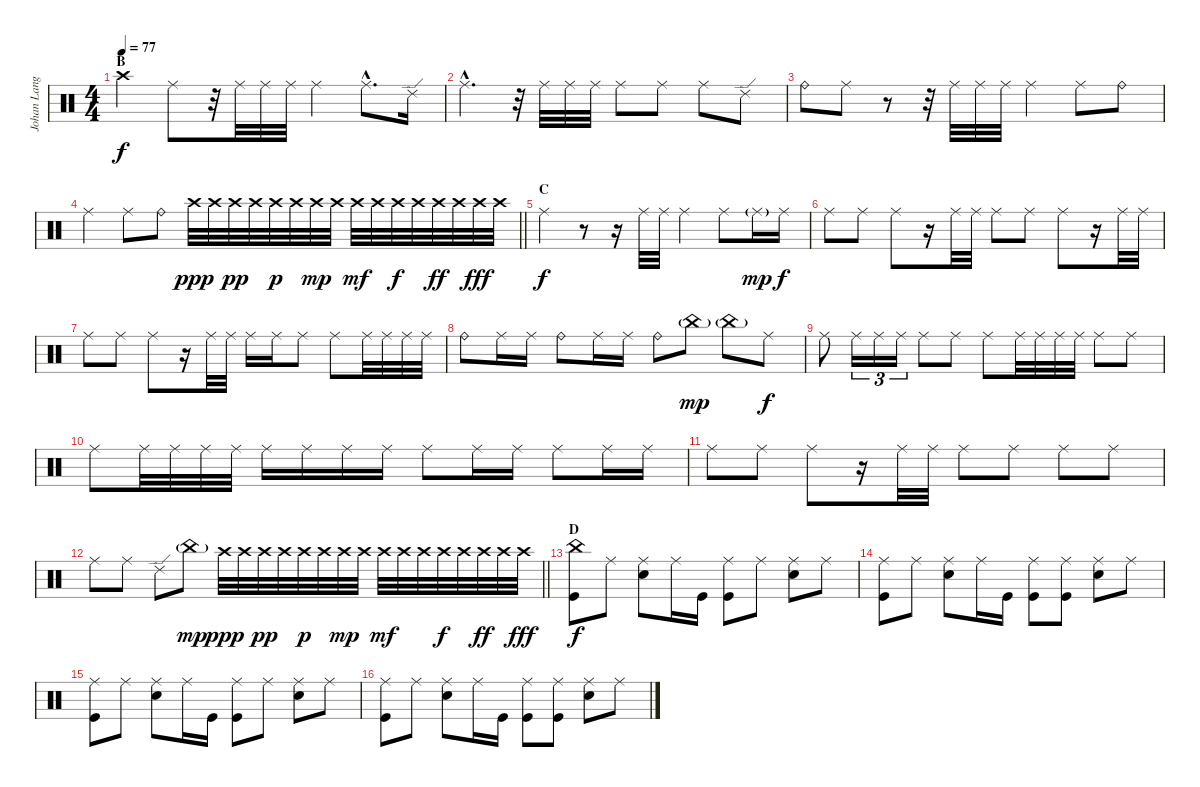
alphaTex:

\track ("Johan Langell - drums" "Johan Lang") {instrument percussion}
\staff {score}
\articulation defaults
\ts (4 4)
\section ("" "B")
\tempo 77
\clef neutral
\ks c "Crash high (hit)".4{dy f} "Ride (middle)".8
r.32 "Ride (middle)".32 "Ride (middle)".32 "Ride (middle)".32 "Ride (middle)".4 "Ride (middle)"{hac}.8{d} "Ride (edge) 2".16 |
"Ride (middle)"{hac}.4{d} r.32 "Ride (middle)".32 "Ride (middle)".32 "Ride (middle)".32 "Ride (middle)".8 "Ride (middle)".8 "Ride (middle)".8 "Ride (edge) 2".8 |
"Ride (bell)".8 "Ride (middle)".8 r.8 r.32 "Ride (middle)".32 "Ride (middle)".32 "Ride (middle)".32 "Ride (middle)".4 "Ride (middle)".8 "Ride (bell)".8 |
\barLineRight lightlight "Ride (middle)".4 "Ride (middle)".8 "Ride (bell)".8 "Crash high (hit)".32{dy ppp} "Crash high (hit)".32 "Crash high (hit)".32{dy pp} "Crash high (hit)".32 "Crash high (hit)".32{dy p} "Crash high (hit)".32 "Crash high (hit)".32{dy mp} "Crash high (hit)".32 "Crash high (hit)".32{dy mf} "Crash high (hit)".32 "Crash high (hit)".32{dy f} "Crash high (hit)".32 "Crash high (hit)".32{dy ff} "Crash high (hit)".32 "Crash high (hit)".32{dy fff} "Crash high (hit)".32
|
\section ("" "C")
"Ride (middle)".4{dy f} r.8 r.16 "Ride (middle)".32 "Ride (middle)".32 "Ride (middle)".4 "Ride (middle)".8 "Ride (middle)"{g}.16{dy mp} "Ride (middle)".16{dy f} |
"Ride (middle)".8 "Ride (middle)".8 "Ride (middle)".8 r.16 "Ride (middle)".32 "Ride (middle)".32 "Ride (middle)".8 "Ride (middle)".8 "Ride (middle)".8 r.16 "Ride (middle)".32 "Ride (middle)".32 |
"Ride (middle)".8 "Ride (middle)".8 "Ride (middle)".8 r.16 "Ride (middle)".32 "Ride (middle)".32 "Ride (middle)".16 "Ride (middle)".16 "Ride (middle)".8 "Ride (middle)".8 "Ride (middle)".32 "Ride (middle)".32 "Ride (middle)".32 "Ride (middle)".32 |
"Ride (bell)".8 "Ride (middle)".16 "Ride (middle)".16 "Ride (bell)".8 "Ride (middle)".16 "Ride (middle)".16 "Ride (bell)".8 "China (hit)"{g}.8{dy mp} "China (hit)"{g}.8 "Ride (middle)".8{dy f} |
"Ride (middle)".8 "Ride (middle)".16{tu (3 2)} "Ride (middle)".16{tu (3 2)} "Ride (middle)".16{tu (3 2)} "Ride (middle)".8 "Ride (middle)".8 "Ride (middle)".8 "Ride (middle)".32 "Ride (middle)".32 "Ride (middle)".32 "Ride (middle)".32 "Ride (middle)".8 "Ride (middle)".8 |
"Ride (middle)".8 "Ride (middle)".32 "Ride (middle)".32 "Ride (middle)".32 "Ride (middle)".32 "Ride (middle)".16 "Ride (middle)".16 "Ride (middle)".16 "Ride (middle)".16 "Ride (middle)".8 "Ride (middle)".16 "Ride (middle)".16 "Ride (middle)".8 "Ride (middle)".16 "Ride (middle)".16 |
"Ride (middle)".8 "Ride (middle)".8 "Ride (middle)".8 r.16 "Ride (middle)".32 "Ride (middle)".32 "Ride (middle)".8 "Ride (middle)".8 "Ride (middle)".8 "Ride (middle)".8 |
\barLineRight lightlight "Ride (middle)".8 "Ride (middle)".8 "Ride (edge) 2".8 "China (hit)"{g}.8{dy mp} "Crash high (hit)".32{dy ppp} "Crash high (hit)".32 "Crash high (hit)".32{dy pp} "Crash high (hit)".32 "Crash high (hit)".32{dy p} "Crash high (hit)".32 "Crash high (hit)".32{dy mp} "Crash high (hit)".32 "Crash high (hit)".32{dy mf} "Crash high (hit)".32 "Crash high (hit)".32 "Crash high (hit)".32{dy f} "Crash high (hit)".32 "Crash high (hit)".32{dy ff} "Crash high (hit)".32 "Crash high (hit)".32{dy fff}
|
\section ("" "D")
("China (hit)" "Kick (hit)").8{dy f} "Ride (middle)".8 ("Ride (middle)" "Electric Snare (hit)").8 "Ride (middle)".16 "Kick (hit)".16 ("Ride (middle)" "Kick (hit)").8 "Ride (middle)".8 ("Ride (middle)" "Electric Snare (hit)").8 "Ride (middle)".8 |
("Ride (middle)" "Kick (hit)").8 "Ride (middle)".8 ("Ride (middle)" "Electric Snare (hit)").8 "Ride (middle)".16 "Kick (hit)".16 ("Ride (middle)" "Kick (hit)").8 ("Ride (middle)" "Kick (hit)").8 ("Ride (middle)" "Electric Snare (hit)").8 "Ride (middle)".8 |
("Ride (middle)" "Kick (hit)").8 "Ride (middle)".8 ("Ride (middle)" "Electric Snare (hit)").8 "Ride (middle)".16 "Kick (hit)".16 ("Ride (middle)" "Kick (hit)").8 "Ride (middle)".8 ("Ride (middle)" "Electric Snare (hit)").8 "Ride (middle)".8 |
("Ride (middle)" "Kick (hit)").8 "Ride (middle)".8 ("Ride (middle)" "Electric Snare (hit)").8 "Ride (middle)".16 "Kick (hit)".16 ("Ride (middle)" "Kick (hit)").8 ("Ride (middle)" "Kick (hit)").8 ("Ride (middle)" "Electric Snare (hit)").8 "Ride (middle)".8
